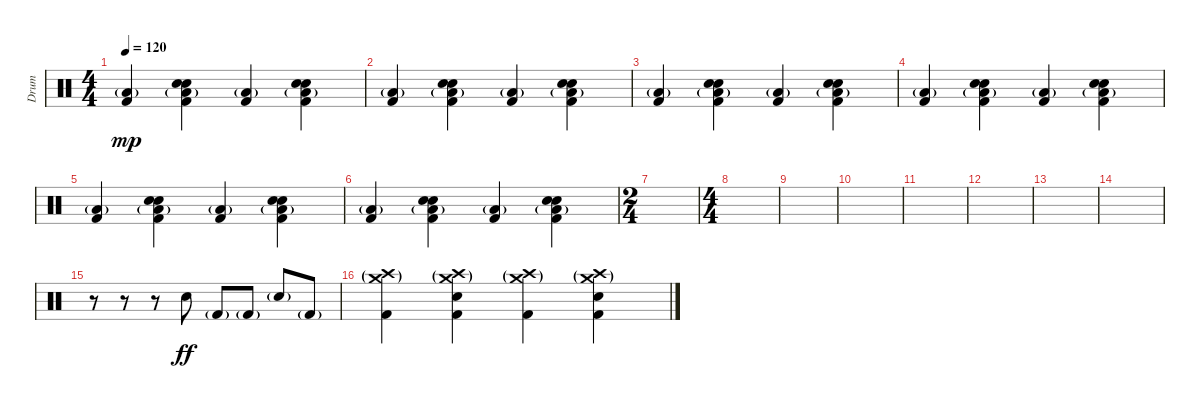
\track ("Drum" "Drum") {instrument percussion}
\staff {score}
\articulation defaults
\ts (4 4)
\tempo 120
\clef neutral
\ks c
("Low Tom (hit)"{g} "Kick (hit) 2").4{dy mp} ("Hand Clap (hit)" "Snare (hit) 2" "Low Tom (hit)"{g} "Kick (hit) 2").4 ("Low Tom (hit)"{g} "Kick (hit) 2").4 ("Hand Clap (hit)" "Snare (hit) 2" "Low Tom (hit)"{g} "Kick (hit) 2").4 |
("Low Tom (hit)"{g} "Kick (hit) 2").4 ("Hand Clap (hit)" "Snare (hit) 2" "Low Tom (hit)"{g} "Kick (hit) 2").4 ("Low Tom (hit)"{g} "Kick (hit) 2").4 ("Hand Clap (hit)" "Snare (hit) 2" "Low Tom (hit)"{g} "Kick (hit) 2").4 |
("Low Tom (hit)"{g} "Kick (hit) 2").4 ("Hand Clap (hit)" "Snare (hit) 2" "Low Tom (hit)"{g} "Kick (hit) 2").4 ("Low Tom (hit)"{g} "Kick (hit) 2").4 ("Hand Clap (hit)" "Snare (hit) 2" "Low Tom (hit)"{g} "Kick (hit) 2").4 |
("Low Tom (hit)"{g} "Kick (hit) 2").4 ("Hand Clap (hit)" "Snare (hit) 2" "Low Tom (hit)"{g} "Kick (hit) 2").4 ("Low Tom (hit)"{g} "Kick (hit) 2").4 ("Hand Clap (hit)" "Snare (hit) 2" "Low Tom (hit)"{g} "Kick (hit) 2").4 |
("Low Tom (hit)"{g} "Kick (hit) 2").4 ("Hand Clap (hit)" "Snare (hit) 2" "Low Tom (hit)"{g} "Kick (hit) 2").4 ("Low Tom (hit)"{g} "Kick (hit) 2").4 ("Hand Clap (hit)" "Snare (hit) 2" "Low Tom (hit)"{g} "Kick (hit) 2").4 |
("Low Tom (hit)"{g} "Kick (hit) 2").4 ("Hand Clap (hit)" "Snare (hit) 2" "Low Tom (hit)"{g} "Kick (hit) 2").4 ("Low Tom (hit)"{g} "Kick (hit) 2").4 ("Hand Clap (hit)" "Snare (hit) 2" "Low Tom (hit)"{g} "Kick (hit) 2").4 |
\ts (2 4)
|
\ts (4 4)
|
|
|
|
|
|
|
r.8 r.8 r.8 "Snare (hit) 2".8{dy ff} "Kick (hit) 2"{g}.8 "Kick (hit) 2"{g}.8 "Snare (hit) 2"{g}.8 "Kick (hit) 2"{g}.8 |
("Crash medium (hit)"{g} "Crash high (hit)"{g} "Kick (hit) 2").4 ("Crash medium (hit)"{g} "Crash high (hit)"{g} "Snare (hit) 2" "Kick (hit) 2").4 ("Crash medium (hit)"{g} "Crash high (hit)"{g} "Kick (hit) 2").4 ("Crash medium (hit)"{g} "Crash high (hit)"{g} "Snare (hit) 2" "Kick (hit) 2").4
